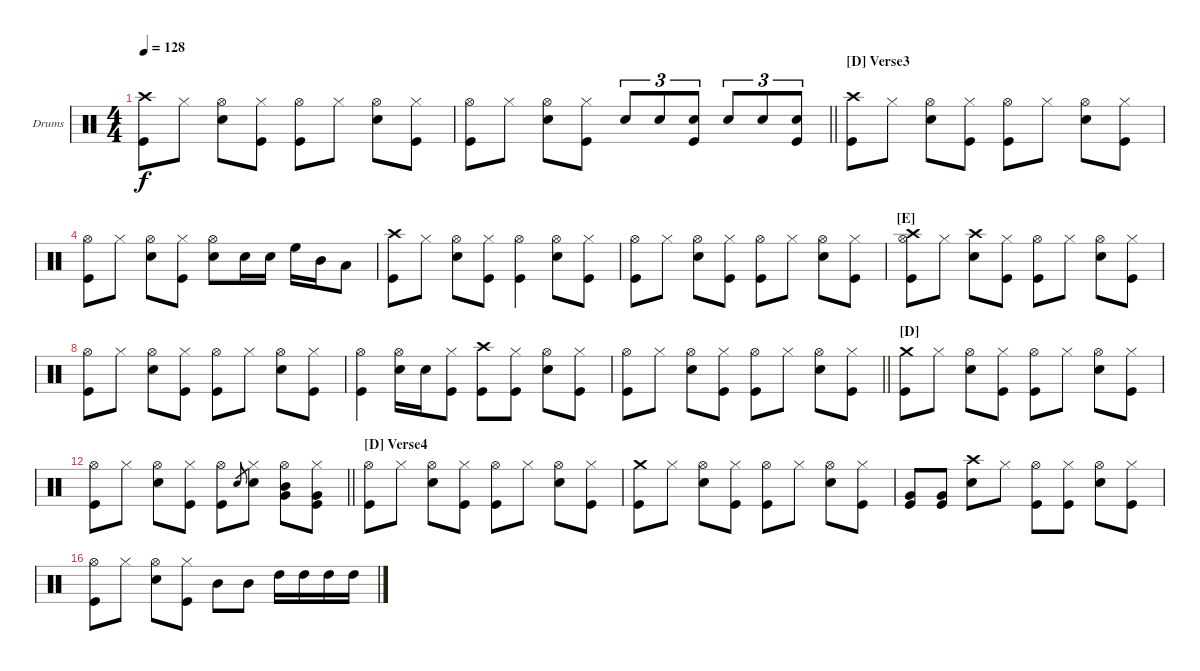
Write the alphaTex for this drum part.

\bracketExtendMode nobrackets
\firstSystemTrackNameOrientation horizontal
\otherSystemsTrackNameOrientation horizontal
\defaultBarNumberDisplay FirstOfSystem
\track ("Drumkit" "Drums") {instrument percussion}
\staff {score}
\articulation defaults
\ts (4 4)
\tempo 128
\clef neutral
\scale
0.243697
\ks c
("Kick (hit)" "Crash high (hit)").8{dy f} "Hi-Hat (closed)".8 ("Hi-Hat (open)" "Snare (hit) 2").8 ("Hi-Hat (closed)" "Kick (hit)").8 ("Kick (hit)" "Hi-Hat (open)").8 "Hi-Hat (closed)".8 ("Hi-Hat (open)" "Snare (hit) 2").8 ("Hi-Hat (closed)" "Kick (hit)").8 |
\scale
0.268908
\barLineRight lightlight
("Kick (hit)" "Hi-Hat (open)").8 "Hi-Hat (closed)".8 ("Hi-Hat (open)" "Snare (hit) 2").8 ("Hi-Hat (closed)" "Kick (hit)").8 "Snare (hit) 2".8{tu (3 2)} "Snare (hit) 2".8{tu (3 2)} ("Snare (hit) 2" "Kick (hit)").8{tu (3 2)} "Snare (hit) 2".8{tu (3 2)} "Snare (hit) 2".8{tu (3 2)} ("Snare (hit) 2" "Kick (hit)").8{tu (3 2)} |
\section ("D" "Verse3")
\scale
0.220994 ("Crash high (hit)" "Kick (hit)").8 "Hi-Hat (closed)".8 ("Hi-Hat (open)" "Snare (hit) 2").8 ("Hi-Hat (closed)" "Kick (hit)").8 ("Hi-Hat (open)" "Kick (hit)").8 "Hi-Hat (closed)".8 ("Snare (hit) 2" "Hi-Hat (open)").8 ("Kick (hit)" "Hi-Hat (closed)").8 |
\scale
0.267956 ("Kick (hit)" "Hi-Hat (open)").8 "Hi-Hat (closed)".8 ("Hi-Hat (open)" "Snare (hit) 2").8 ("Hi-Hat (closed)" "Kick (hit)").8 ("Hi-Hat (open)" "Snare (hit) 2").8 "Snare (hit) 2".16 "Snare (hit) 2".16 "High Floor Tom (hit)".16 "Mid Tom (hit)".16 "Low Tom (hit)".8 |
\scale
0.220994 ("Kick (hit)" "Crash high (hit)").8 "Hi-Hat (closed)".8 ("Hi-Hat (open)" "Snare (hit) 2").8 ("Hi-Hat (closed)" "Kick (hit)").8 ("Hi-Hat (open)" "Kick (hit)").4 ("Snare (hit) 2" "Hi-Hat (open)").8 ("Kick (hit)" "Hi-Hat (closed)").8 |
\scale
0.290055 ("Kick (hit)" "Hi-Hat (open)").8 "Hi-Hat (closed)".8 ("Hi-Hat (open)" "Snare (hit) 2").8 ("Hi-Hat (closed)" "Kick (hit)").8 ("Hi-Hat (open)" "Kick (hit)").8 "Hi-Hat (closed)".8 ("Hi-Hat (open)" "Snare (hit) 2").8 ("Hi-Hat (closed)" "Kick (hit)").8 |
\section ("E" "")
\scale
0.229358 ("Hi-Hat (open)" "Kick (hit)" "Crash high (hit)").8 "Hi-Hat (closed)".8 ("Crash high (hit)" "Snare (hit) 2").8 ("Hi-Hat (closed)" "Kick (hit)").8 ("Hi-Hat (open)" "Kick (hit)").8 "Hi-Hat (closed)".8 ("Hi-Hat (open)" "Snare (hit) 2").8 ("Hi-Hat (closed)" "Kick (hit)").8 |
\scale
0.296636 ("Kick (hit)" "Hi-Hat (open)").8 "Hi-Hat (closed)".8 ("Hi-Hat (open)" "Snare (hit) 2").8 ("Hi-Hat (closed)" "Kick (hit)").8 ("Hi-Hat (open)" "Kick (hit)").8 "Hi-Hat (closed)".8 ("Hi-Hat (open)" "Snare (hit) 2").8 ("Hi-Hat (closed)" "Kick (hit)").8 |
\scale
0.229358 ("Hi-Hat (open)" "Kick (hit)").4 ("Snare (hit) 2" "Hi-Hat (open)").16 "Snare (hit) 2".16 ("Hi-Hat (closed)" "Kick (hit)").8 ("Crash high (hit)" "Kick (hit)").8 ("Hi-Hat (closed)" "Kick (hit)").8 ("Hi-Hat (open)" "Snare (hit) 2").8 ("Hi-Hat (closed)" "Kick (hit)").8 |
\scale
0.244648
\barLineRight lightlight
("Hi-Hat (open)" "Kick (hit)").8 "Hi-Hat (closed)".8 ("Hi-Hat (open)" "Snare (hit) 2").8 ("Hi-Hat (closed)" "Kick (hit)").8 ("Hi-Hat (open)" "Kick (hit)").8 "Hi-Hat (closed)".8 ("Hi-Hat (open)" "Snare (hit) 2").8 ("Hi-Hat (closed)" "Kick (hit)").8 |
\section ("D" "")
\scale
0.244275 ("Kick (hit)" "Crash medium (hit)").8 "Hi-Hat (closed)".8 ("Hi-Hat (open)" "Snare (hit) 2").8 ("Hi-Hat (closed)" "Kick (hit)").8 ("Hi-Hat (open)" "Kick (hit)").8 "Hi-Hat (closed)".8 ("Hi-Hat (open)" "Snare (hit) 2").8 ("Hi-Hat (closed)" "Kick (hit)").8 |
\scale
0.244275
\barLineRight lightlight
("Hi-Hat (open)" "Kick (hit)").8 "Hi-Hat (closed)".8 ("Hi-Hat (open)" "Snare (hit) 2").8 ("Hi-Hat (closed)" "Kick (hit)").8 ("Hi-Hat (open)" "Kick (hit)").8 "Snare (hit) 2".8{gr} ("Hi-Hat (closed)" "Snare (hit) 2").8 ("Hi-Hat (open)" "Very Low Tom (hit)" "Mid Tom (hit)").8 ("Hi-Hat (closed)" "Kick (hit)" "Very Low Tom (hit)").8 |
\section ("D" "Verse4")
\scale
0.267176 ("Hi-Hat (open)" "Kick (hit)").8 "Hi-Hat (closed)".8 ("Hi-Hat (open)" "Snare (hit) 2").8 ("Hi-Hat (closed)" "Kick (hit)").8 ("Hi-Hat (open)" "Kick (hit)").8 "Hi-Hat (closed)".8 ("Hi-Hat (open)" "Snare (hit) 2").8 ("Hi-Hat (closed)" "Kick (hit)").8 |
\scale
0.244275 ("Kick (hit)" "Crash medium (hit)").8 "Hi-Hat (closed)".8 ("Hi-Hat (open)" "Snare (hit) 2").8 ("Hi-Hat (closed)" "Kick (hit)").8 ("Hi-Hat (open)" "Kick (hit)").8 "Hi-Hat (closed)".8 ("Hi-Hat (open)" "Snare (hit) 2").8 ("Hi-Hat (closed)" "Kick (hit)").8 |
\scale
0.223152 ("Very Low Tom (hit)" "Kick (hit)").8 ("Very Low Tom (hit)" "Kick (hit)").8 ("Crash high (hit)" "Snare (hit) 2").8 "Hi-Hat (closed)".8 ("Hi-Hat (open)" "Kick (hit)").8 ("Hi-Hat (closed)" "Kick (hit)").8 ("Hi-Hat (open)" "Snare (hit) 2").8 ("Hi-Hat (closed)" "Kick (hit)").8 |
\scale
0.23431 ("Hi-Hat (open)" "Kick (hit)").8 "Hi-Hat (closed)".8 ("Hi-Hat (open)" "Snare (hit) 2").8 ("Hi-Hat (closed)" "Kick (hit)").8 "Mid Tom (hit)".8 "Mid Tom (hit)".8 "High Tom (hit)".16 "High Tom (hit)".16 "High Tom (hit)".16 "High Tom (hit)".16
